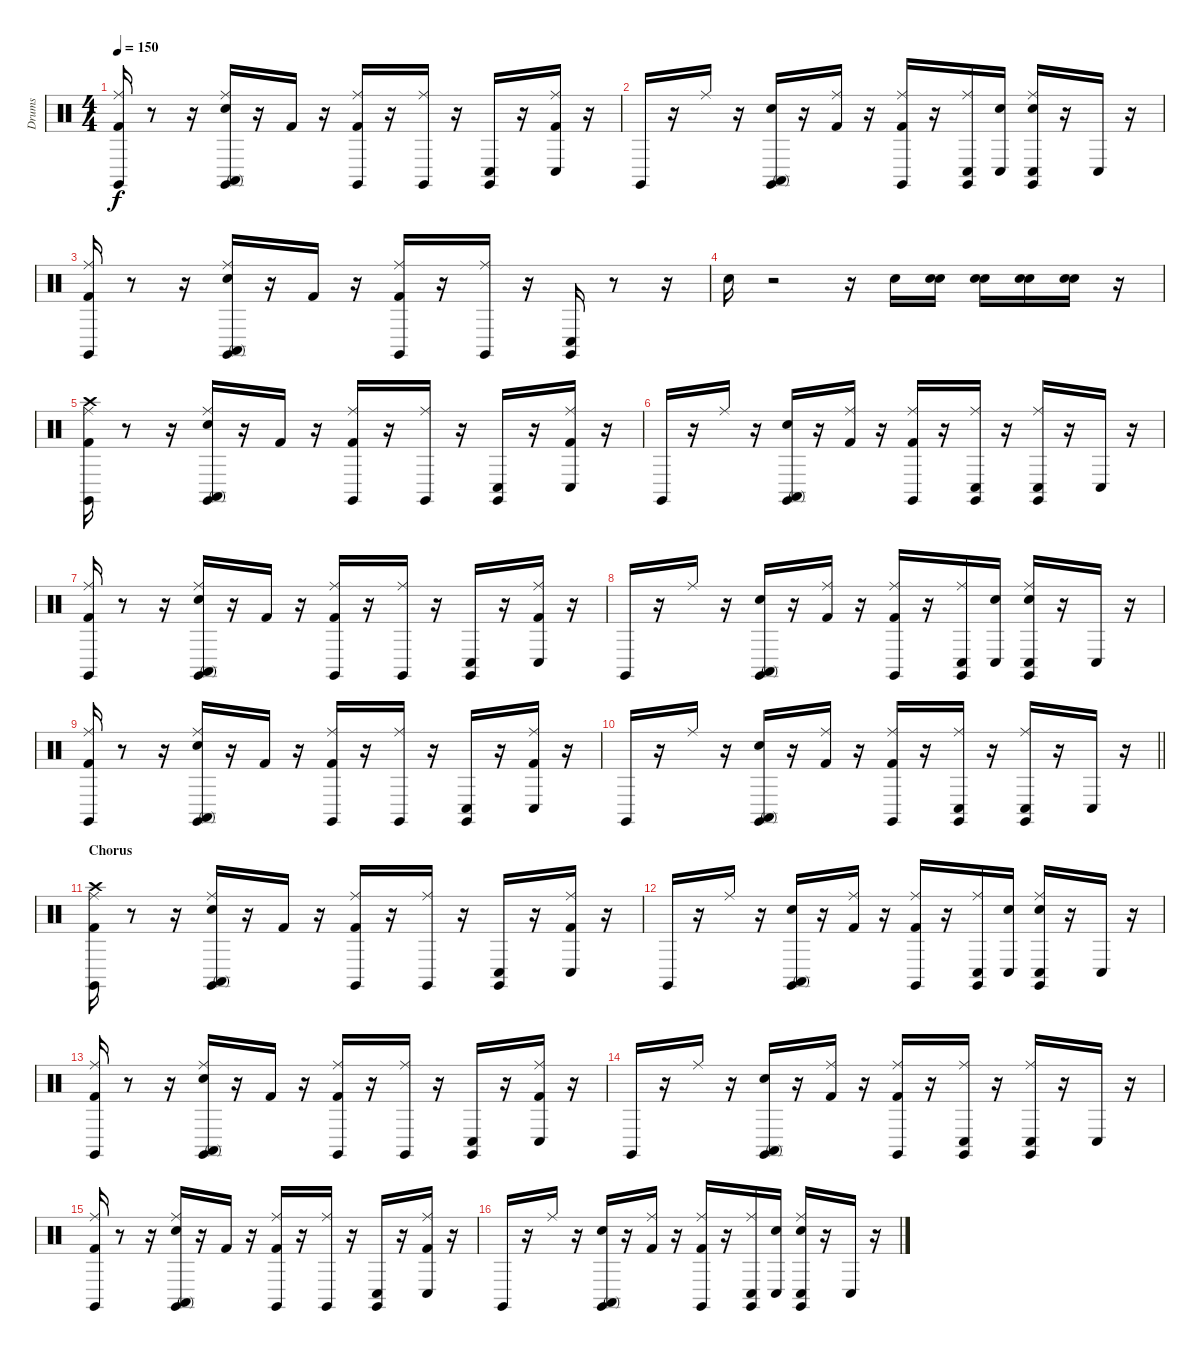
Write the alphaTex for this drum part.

\track ("Drums" "Drums") {instrument percussion}
\staff {score}
\articulation defaults
\ts (4 4)
\tempo 150
\clef neutral
\ks c
("Kick (hit) 2" "Ride (middle)" "Claves (hit)").16{dy f} r.8 r.16 ("Snare (hit) 2" "Ride (middle)" "Conga high (mute)" "Claves (hit)").16 r.16 "Kick (hit) 2".16 r.16 ("Kick (hit) 2" "Ride (middle)" "Claves (hit)").16 r.16 ("Ride (middle)" "Claves (hit)").16 r.16 ("Conga low (hit)" "Claves (hit)").16 r.16 ("Kick (hit) 2" "Ride (middle)" "Conga low (hit)").16 r.16 |
"Claves (hit)".16 r.16 "Ride (middle)".16 r.16 ("Snare (hit) 2" "Conga high (mute)" "Claves (hit)").16 r.16 ("Kick (hit) 2" "Ride (middle)").16 r.16 ("Kick (hit) 2" "Ride (middle)" "Claves (hit)").16 r.16 ("Ride (middle)" "Conga low (hit)" "Claves (hit)").16 ("Snare (hit)" "Conga low (hit)").16 ("Snare (hit)" "Ride (middle)" "Conga low (hit)" "Claves (hit)").16 r.16 "Conga low (hit)".16 r.16 |
("Kick (hit) 2" "Ride (middle)" "Claves (hit)").16 r.8 r.16 ("Snare (hit) 2" "Ride (middle)" "Conga high (mute)" "Claves (hit)").16 r.16 "Kick (hit) 2".16 r.16 ("Kick (hit) 2" "Ride (middle)" "Claves (hit)").16 r.16 ("Ride (middle)" "Claves (hit)").16 r.16 ("Conga low (hit)" "Claves (hit)").16 r.8 r.16 |
"Snare (hit) 2".16 r.2 r.16 "Snare (hit) 2".16 ("Snare (hit)" "Snare (hit) 2").16 ("Snare (hit)" "Snare (hit) 2").16 ("Snare (hit)" "Snare (hit) 2").16 ("Snare (hit)" "Snare (hit) 2").16 r.16 |
("Kick (hit) 2" "Crash high (hit)" "Ride (middle)" "Claves (hit)").16 r.8 r.16 ("Snare (hit) 2" "Ride (middle)" "Conga high (mute)" "Claves (hit)").16 r.16 "Kick (hit) 2".16 r.16 ("Kick (hit) 2" "Ride (middle)" "Claves (hit)").16 r.16 ("Ride (middle)" "Claves (hit)").16 r.16 ("Conga low (hit)" "Claves (hit)").16 r.16 ("Kick (hit) 2" "Ride (middle)" "Conga low (hit)").16 r.16 |
"Claves (hit)".16 r.16 "Ride (middle)".16 r.16 ("Snare (hit) 2" "Conga high (mute)" "Claves (hit)").16 r.16 ("Kick (hit) 2" "Ride (middle)").16 r.16 ("Kick (hit) 2" "Ride (middle)" "Claves (hit)").16 r.16 ("Ride (middle)" "Conga low (hit)" "Claves (hit)").16 r.16 ("Ride (middle)" "Conga low (hit)" "Claves (hit)").16 r.16 "Conga low (hit)".16 r.16 |
("Kick (hit) 2" "Ride (middle)" "Claves (hit)").16 r.8 r.16 ("Snare (hit) 2" "Ride (middle)" "Conga high (mute)" "Claves (hit)").16 r.16 "Kick (hit) 2".16 r.16 ("Kick (hit) 2" "Ride (middle)" "Claves (hit)").16 r.16 ("Ride (middle)" "Claves (hit)").16 r.16 ("Conga low (hit)" "Claves (hit)").16 r.16 ("Kick (hit) 2" "Ride (middle)" "Conga low (hit)").16 r.16 |
"Claves (hit)".16 r.16 "Ride (middle)".16 r.16 ("Snare (hit) 2" "Conga high (mute)" "Claves (hit)").16 r.16 ("Kick (hit) 2" "Ride (middle)").16 r.16 ("Kick (hit) 2" "Ride (middle)" "Claves (hit)").16 r.16 ("Ride (middle)" "Conga low (hit)" "Claves (hit)").16 ("Snare (hit)" "Conga low (hit)").16 ("Snare (hit)" "Ride (middle)" "Conga low (hit)" "Claves (hit)").16 r.16 "Conga low (hit)".16 r.16 |
("Kick (hit) 2" "Ride (middle)" "Claves (hit)").16 r.8 r.16 ("Snare (hit) 2" "Ride (middle)" "Conga high (mute)" "Claves (hit)").16 r.16 "Kick (hit) 2".16 r.16 ("Kick (hit) 2" "Ride (middle)" "Claves (hit)").16 r.16 ("Ride (middle)" "Claves (hit)").16 r.16 ("Conga low (hit)" "Claves (hit)").16 r.16 ("Kick (hit) 2" "Ride (middle)" "Conga low (hit)").16 r.16 |
\barLineRight lightlight "Claves (hit)".16
r.16 "Ride (middle)".16 r.16 ("Snare (hit) 2" "Conga high (mute)" "Claves (hit)").16 r.16 ("Kick (hit) 2" "Ride (middle)").16 r.16 ("Kick (hit) 2" "Ride (middle)" "Claves (hit)").16 r.16 ("Ride (middle)" "Conga low (hit)" "Claves (hit)").16 r.16 ("Ride (middle)" "Conga low (hit)" "Claves (hit)").16 r.16 "Conga low (hit)".16 r.16 |
\section ("" "Chorus")
("Kick (hit) 2" "Crash high (hit)" "Ride (middle)" "Claves (hit)").16 r.8 r.16 ("Snare (hit) 2" "Ride (middle)" "Conga high (mute)" "Claves (hit)").16 r.16 "Kick (hit) 2".16 r.16 ("Kick (hit) 2" "Ride (middle)" "Claves (hit)").16 r.16 ("Ride (middle)" "Claves (hit)").16 r.16 ("Conga low (hit)" "Claves (hit)").16 r.16 ("Kick (hit) 2" "Ride (middle)" "Conga low (hit)").16 r.16 |
"Claves (hit)".16 r.16 "Ride (middle)".16 r.16 ("Snare (hit) 2" "Conga high (mute)" "Claves (hit)").16 r.16 ("Kick (hit) 2" "Ride (middle)").16 r.16 ("Kick (hit) 2" "Ride (middle)" "Claves (hit)").16 r.16 ("Ride (middle)" "Conga low (hit)" "Claves (hit)").16 ("Snare (hit)" "Conga low (hit)").16 ("Snare (hit)" "Ride (middle)" "Conga low (hit)" "Claves (hit)").16 r.16 "Conga low (hit)".16 r.16 |
("Kick (hit) 2" "Ride (middle)" "Claves (hit)").16 r.8 r.16 ("Snare (hit) 2" "Ride (middle)" "Conga high (mute)" "Claves (hit)").16 r.16 "Kick (hit) 2".16 r.16 ("Kick (hit) 2" "Ride (middle)" "Claves (hit)").16 r.16 ("Ride (middle)" "Claves (hit)").16 r.16 ("Conga low (hit)" "Claves (hit)").16 r.16 ("Kick (hit) 2" "Ride (middle)" "Conga low (hit)").16 r.16 |
"Claves (hit)".16 r.16 "Ride (middle)".16 r.16 ("Snare (hit) 2" "Conga high (mute)" "Claves (hit)").16 r.16 ("Kick (hit) 2" "Ride (middle)").16 r.16 ("Kick (hit) 2" "Ride (middle)" "Claves (hit)").16 r.16 ("Ride (middle)" "Conga low (hit)" "Claves (hit)").16 r.16 ("Ride (middle)" "Conga low (hit)" "Claves (hit)").16 r.16 "Conga low (hit)".16 r.16 |
("Kick (hit) 2" "Ride (middle)" "Claves (hit)").16 r.8 r.16 ("Snare (hit) 2" "Ride (middle)" "Conga high (mute)" "Claves (hit)").16 r.16 "Kick (hit) 2".16 r.16 ("Kick (hit) 2" "Ride (middle)" "Claves (hit)").16 r.16 ("Ride (middle)" "Claves (hit)").16 r.16 ("Conga low (hit)" "Claves (hit)").16 r.16 ("Kick (hit) 2" "Ride (middle)" "Conga low (hit)").16 r.16 |
"Claves (hit)".16 r.16 "Ride (middle)".16 r.16 ("Snare (hit) 2" "Conga high (mute)" "Claves (hit)").16 r.16 ("Kick (hit) 2" "Ride (middle)").16 r.16 ("Kick (hit) 2" "Ride (middle)" "Claves (hit)").16 r.16 ("Ride (middle)" "Conga low (hit)" "Claves (hit)").16 ("Snare (hit)" "Conga low (hit)").16 ("Snare (hit)" "Ride (middle)" "Conga low (hit)" "Claves (hit)").16 r.16 "Conga low (hit)".16 r.16
